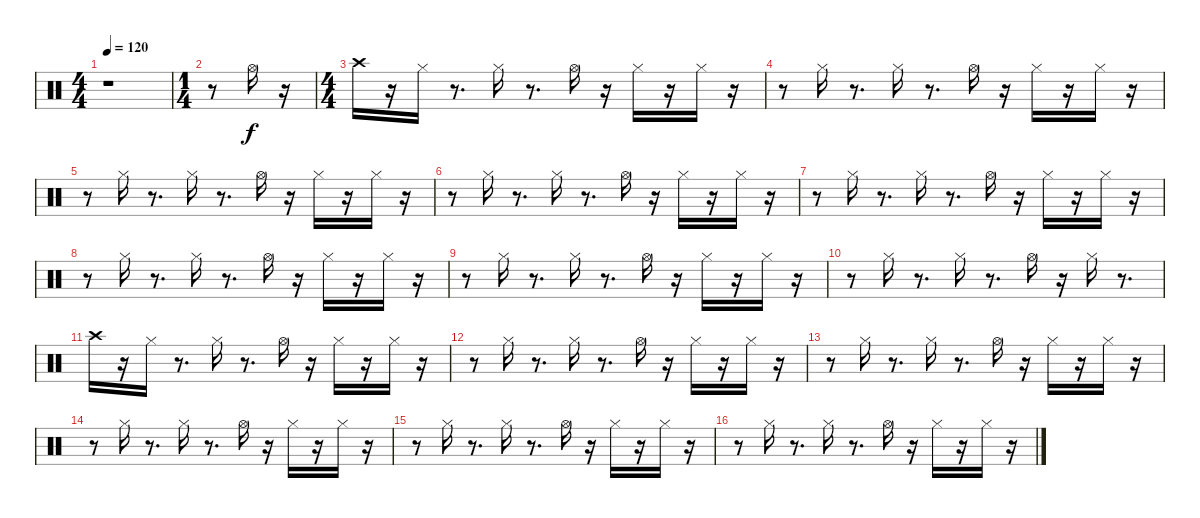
\track "" {instrument percussion}
\staff {score}
\articulation defaults
\ts (4 4)
\tempo 120
\clef neutral
\ks c
r.1{dy f} |
\ts (1 4)
r.8 "Hi-Hat (open)".16 r.16 |
\ts (4 4)
"Crash high (hit)".16 r.16 "Hi-Hat (closed)".16 r.8{d} "Hi-Hat (closed)".16 r.8{d} "Hi-Hat (open)".16 r.16 "Hi-Hat (closed)".16 r.16 "Hi-Hat (closed)".16 r.16 |
r.8 "Hi-Hat (closed)".16 r.8{d} "Hi-Hat (closed)".16 r.8{d} "Hi-Hat (open)".16 r.16 "Hi-Hat (closed)".16 r.16 "Hi-Hat (closed)".16 r.16 |
r.8 "Hi-Hat (closed)".16 r.8{d} "Hi-Hat (closed)".16 r.8{d} "Hi-Hat (open)".16 r.16 "Hi-Hat (closed)".16 r.16 "Hi-Hat (closed)".16 r.16 |
r.8 "Hi-Hat (closed)".16 r.8{d} "Hi-Hat (closed)".16 r.8{d} "Hi-Hat (open)".16 r.16 "Hi-Hat (closed)".16 r.16 "Hi-Hat (closed)".16 r.16 |
r.8 "Hi-Hat (closed)".16 r.8{d} "Hi-Hat (closed)".16 r.8{d} "Hi-Hat (open)".16 r.16 "Hi-Hat (closed)".16 r.16 "Hi-Hat (closed)".16 r.16 |
r.8 "Hi-Hat (closed)".16 r.8{d} "Hi-Hat (closed)".16 r.8{d} "Hi-Hat (open)".16 r.16 "Hi-Hat (closed)".16 r.16 "Hi-Hat (closed)".16 r.16 |
r.8 "Hi-Hat (closed)".16 r.8{d} "Hi-Hat (closed)".16 r.8{d} "Hi-Hat (open)".16 r.16 "Hi-Hat (closed)".16 r.16 "Hi-Hat (closed)".16 r.16 |
r.8 "Hi-Hat (closed)".16 r.8{d} "Hi-Hat (closed)".16 r.8{d} "Hi-Hat (open)".16 r.16 "Hi-Hat (closed)".16 r.8{d} |
"Crash high (hit)".16 r.16 "Hi-Hat (closed)".16 r.8{d} "Hi-Hat (closed)".16 r.8{d} "Hi-Hat (open)".16 r.16 "Hi-Hat (closed)".16 r.16 "Hi-Hat (closed)".16 r.16 |
r.8 "Hi-Hat (closed)".16 r.8{d} "Hi-Hat (closed)".16 r.8{d} "Hi-Hat (open)".16 r.16 "Hi-Hat (closed)".16 r.16 "Hi-Hat (closed)".16 r.16 |
r.8 "Hi-Hat (closed)".16 r.8{d} "Hi-Hat (closed)".16 r.8{d} "Hi-Hat (open)".16 r.16 "Hi-Hat (closed)".16 r.16 "Hi-Hat (closed)".16 r.16 |
r.8 "Hi-Hat (closed)".16 r.8{d} "Hi-Hat (closed)".16 r.8{d} "Hi-Hat (open)".16 r.16 "Hi-Hat (closed)".16 r.16 "Hi-Hat (closed)".16 r.16 |
r.8 "Hi-Hat (closed)".16 r.8{d} "Hi-Hat (closed)".16 r.8{d} "Hi-Hat (open)".16 r.16 "Hi-Hat (closed)".16 r.16 "Hi-Hat (closed)".16 r.16 |
r.8 "Hi-Hat (closed)".16 r.8{d} "Hi-Hat (closed)".16 r.8{d} "Hi-Hat (open)".16 r.16 "Hi-Hat (closed)".16 r.16 "Hi-Hat (closed)".16 r.16
